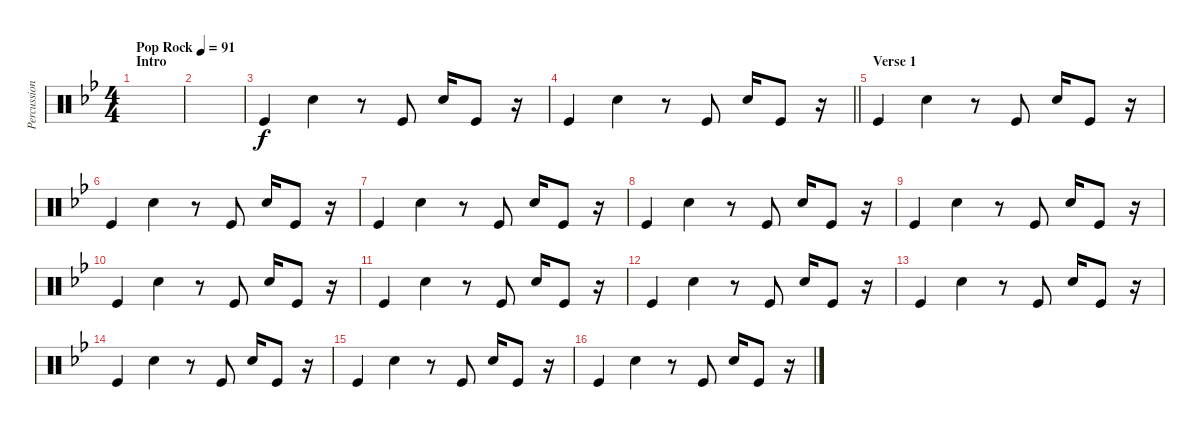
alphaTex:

\track ("Percussion" "Percussion") {instrument percussion}
\staff {score}
\articulation defaults
\ts (4 4)
\section ("" "Intro")
\tempo (91 "Pop Rock")
\clef neutral
\ks bb
|
|
"Kick (hit)".4 "Electric Snare (hit)".4 r.8 "Kick (hit)".8 "Electric Snare (hit)".16 "Kick (hit)".8 r.16 |
\barLineRight lightlight "Kick (hit)".4 "Electric Snare (hit)".4
r.8 "Kick (hit)".8 "Electric Snare (hit)".16 "Kick (hit)".8 r.16 |
\section ("" "Verse 1")
"Kick (hit)".4 "Electric Snare (hit)".4 r.8 "Kick (hit)".8 "Electric Snare (hit)".16 "Kick (hit)".8 r.16 |
"Kick (hit)".4 "Electric Snare (hit)".4 r.8 "Kick (hit)".8 "Electric Snare (hit)".16 "Kick (hit)".8 r.16 |
"Kick (hit)".4 "Electric Snare (hit)".4 r.8 "Kick (hit)".8 "Electric Snare (hit)".16 "Kick (hit)".8 r.16 |
"Kick (hit)".4 "Electric Snare (hit)".4 r.8 "Kick (hit)".8 "Electric Snare (hit)".16 "Kick (hit)".8 r.16 |
"Kick (hit)".4 "Electric Snare (hit)".4 r.8 "Kick (hit)".8 "Electric Snare (hit)".16 "Kick (hit)".8 r.16 |
"Kick (hit)".4 "Electric Snare (hit)".4 r.8 "Kick (hit)".8 "Electric Snare (hit)".16 "Kick (hit)".8 r.16 |
"Kick (hit)".4 "Electric Snare (hit)".4 r.8 "Kick (hit)".8 "Electric Snare (hit)".16 "Kick (hit)".8 r.16 |
"Kick (hit)".4 "Electric Snare (hit)".4 r.8 "Kick (hit)".8 "Electric Snare (hit)".16 "Kick (hit)".8 r.16 |
"Kick (hit)".4 "Electric Snare (hit)".4 r.8 "Kick (hit)".8 "Electric Snare (hit)".16 "Kick (hit)".8 r.16 |
"Kick (hit)".4 "Electric Snare (hit)".4 r.8 "Kick (hit)".8 "Electric Snare (hit)".16 "Kick (hit)".8 r.16 |
"Kick (hit)".4 "Electric Snare (hit)".4 r.8 "Kick (hit)".8 "Electric Snare (hit)".16 "Kick (hit)".8 r.16 |
"Kick (hit)".4 "Electric Snare (hit)".4 r.8 "Kick (hit)".8 "Electric Snare (hit)".16 "Kick (hit)".8 r.16
